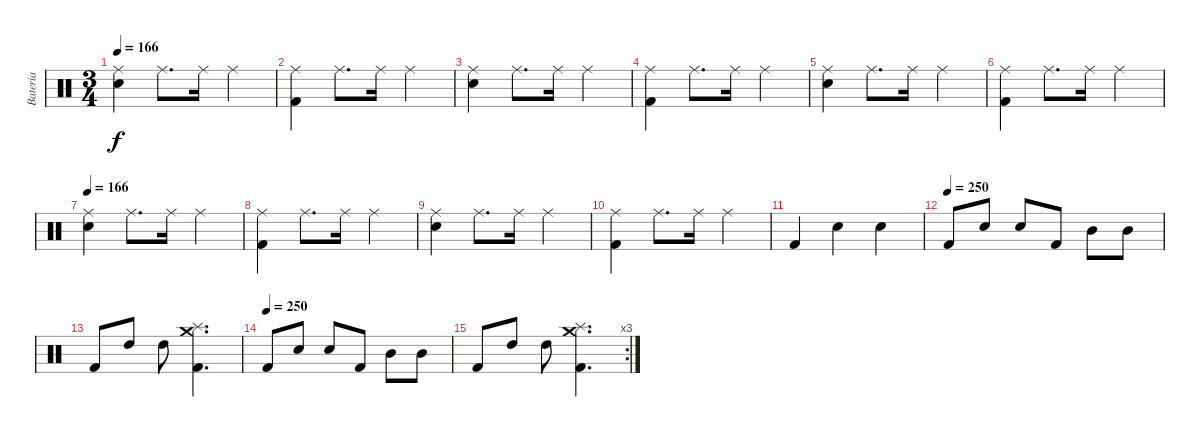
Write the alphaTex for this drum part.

\track ("Batería" "Batería") {instrument percussion}
\staff {score}
\articulation defaults
\ts (3 4)
\tempo 166
\clef neutral
\ks c
("Snare (hit) 2" "Ride (middle)").4{dy f} "Ride (middle)".8{d} "Ride (middle)".16 "Ride (middle)".4 |
("Kick (hit) 2" "Ride (middle)").4 "Ride (middle)".8{d} "Ride (middle)".16 "Ride (middle)".4 |
("Snare (hit) 2" "Ride (middle)").4 "Ride (middle)".8{d} "Ride (middle)".16 "Ride (middle)".4 |
("Kick (hit) 2" "Ride (middle)").4 "Ride (middle)".8{d} "Ride (middle)".16 "Ride (middle)".4 |
("Snare (hit) 2" "Ride (middle)").4 "Ride (middle)".8{d} "Ride (middle)".16 "Ride (middle)".4 |
("Kick (hit) 2" "Ride (middle)").4 "Ride (middle)".8{d} "Ride (middle)".16 "Ride (middle)".4 |
\tempo 166
("Snare (hit) 2" "Ride (middle)").4 "Ride (middle)".8{d} "Ride (middle)".16 "Ride (middle)".4 |
("Kick (hit) 2" "Ride (middle)").4 "Ride (middle)".8{d} "Ride (middle)".16 "Ride (middle)".4 |
("Snare (hit) 2" "Ride (middle)").4 "Ride (middle)".8{d} "Ride (middle)".16 "Ride (middle)".4 |
("Kick (hit) 2" "Ride (middle)").4 "Ride (middle)".8{d} "Ride (middle)".16 "Ride (middle)".4 |
"Kick (hit) 2".4 "Snare (hit) 2".4 "Snare (hit) 2".4 |
\tempo (250)
"Kick (hit) 2".8 "Snare (hit) 2".8 "Snare (hit) 2".8 "Kick (hit) 2".8 "Mid Tom (hit)".8 "Mid Tom (hit)".8 |
"Kick (hit) 2".8 "High Tom (hit)".8 "High Tom (hit)".8 ("Kick (hit) 2" "Crash medium (hit)" "Splash (hit)").4{d} |
\tempo (250)
"Kick (hit) 2".8 "Snare (hit) 2".8 "Snare (hit) 2".8 "Kick (hit) 2".8 "Mid Tom (hit)".8 "Mid Tom (hit)".8 |
\rc 3 "Kick (hit) 2".8 "High Tom (hit)".8 "High Tom (hit)".8
("Kick (hit) 2" "Crash medium (hit)" "Splash (hit)").4{d}
